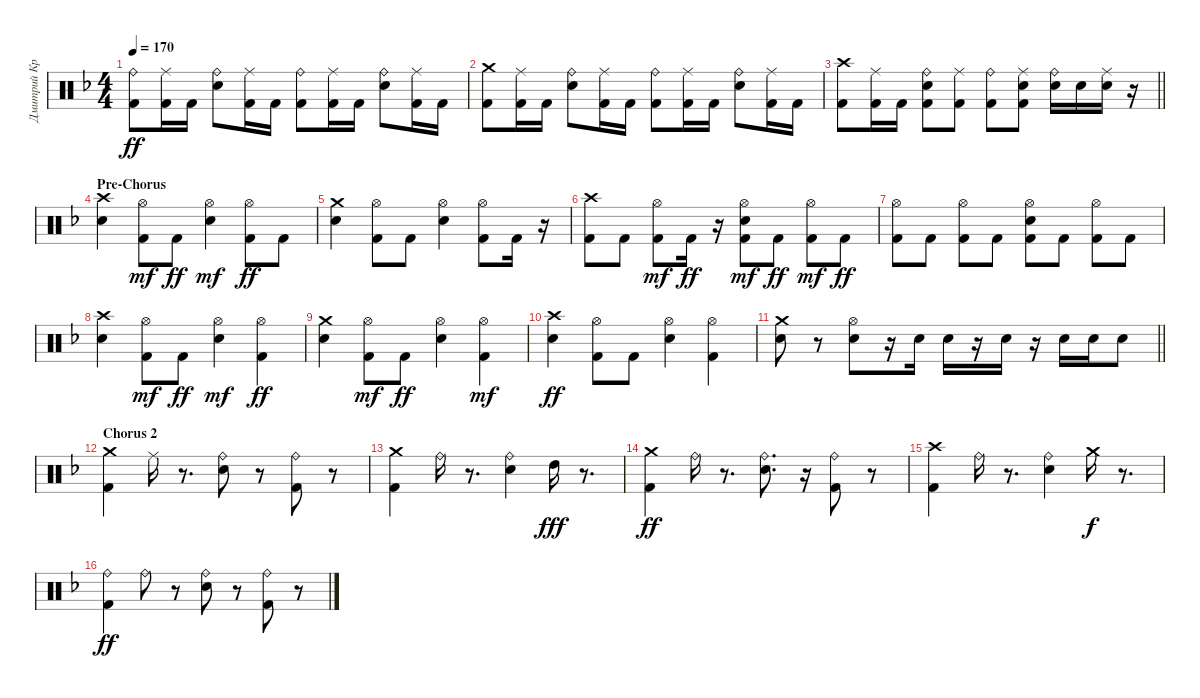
\track ("Дмитрий Кривенков" "Дмитрий Кр") {instrument percussion}
\staff {score}
\articulation defaults
\ts (4 4)
\tempo 170
\clef neutral
\ks f
("Ride (bell)" "Kick (hit) 2").8{dy ff} ("Ride (middle)" "Kick (hit) 2").16 "Kick (hit) 2".16 ("Ride (bell)" "Electric Snare (hit)").8 ("Ride (middle)" "Kick (hit) 2").16 "Kick (hit) 2".16 ("Kick (hit) 2" "Ride (bell)").8 ("Ride (middle)" "Kick (hit) 2").16 "Kick (hit) 2".16 ("Ride (bell)" "Electric Snare (hit)").8 ("Ride (middle)" "Kick (hit) 2").16 "Kick (hit) 2".16 |
("Kick (hit) 2" "Crash medium (hit)").8 ("Kick (hit) 2" "Ride (middle)").16 "Kick (hit) 2".16 ("Electric Snare (hit)" "Ride (bell)").8 ("Kick (hit) 2" "Ride (middle)").16 "Kick (hit) 2".16 ("Kick (hit) 2" "Ride (bell)").8 ("Ride (middle)" "Kick (hit) 2").16 "Kick (hit) 2".16 ("Ride (bell)" "Electric Snare (hit)").8 ("Ride (middle)" "Kick (hit) 2").16 "Kick (hit) 2".16 |
\barLineRight lightlight
("Crash high (hit)" "Kick (hit) 2").8 ("Ride (middle)" "Kick (hit) 2").16 "Kick (hit) 2".16 ("Kick (hit) 2" "Electric Snare (hit)" "Ride (bell)").8 ("Ride (middle)" "Kick (hit) 2").8 ("Ride (bell)" "Kick (hit) 2").8 ("Ride (middle)" "Electric Snare (hit)" "Kick (hit) 2").8 ("Ride (bell)" "Electric Snare (hit)").16 "Electric Snare (hit)".16 ("Ride (middle)" "Electric Snare (hit)").16 r.16 |
\section ("" "Pre-Chorus")
("Electric Snare (hit)" "Crash high (hit)").4 ("Kick (hit) 2" "Hi-Hat (open)").8{dy mf} "Kick (hit) 2".8{dy ff} ("Electric Snare (hit)" "Hi-Hat (open)").4{dy mf} ("Hi-Hat (open)" "Kick (hit) 2").8{dy ff} "Kick (hit) 2".8 |
("Electric Snare (hit)" "Crash medium (hit)").4 ("Hi-Hat (open)" "Kick (hit) 2").8 "Kick (hit) 2".8 ("Hi-Hat (open)" "Electric Snare (hit)").4 ("Hi-Hat (open)" "Kick (hit) 2").8 "Kick (hit) 2".16 r.16 |
("Kick (hit) 2" "Crash high (hit)").8 "Kick (hit) 2".8 ("Kick (hit) 2" "Hi-Hat (open)").8{dy mf} "Kick (hit) 2".16{dy ff} r.16 ("Kick (hit) 2" "Electric Snare (hit)" "Hi-Hat (open)").8{dy mf} "Kick (hit) 2".8{dy ff} ("Kick (hit) 2" "Hi-Hat (open)").8{dy mf} "Kick (hit) 2".8{dy ff} |
("Hi-Hat (open)" "Kick (hit) 2").8 "Kick (hit) 2".8 ("Hi-Hat (open)" "Kick (hit) 2").8 "Kick (hit) 2".8 ("Hi-Hat (open)" "Kick (hit) 2" "Electric Snare (hit)").8 "Kick (hit) 2".8 ("Hi-Hat (open)" "Kick (hit) 2").8 "Kick (hit) 2".8 |
("Electric Snare (hit)" "Crash high (hit)").4 ("Kick (hit) 2" "Hi-Hat (open)").8{dy mf} "Kick (hit) 2".8{dy ff} ("Electric Snare (hit)" "Hi-Hat (open)").4{dy mf} ("Hi-Hat (open)" "Kick (hit) 2").4{dy ff} |
("Electric Snare (hit)" "Crash medium (hit)").4 ("Kick (hit) 2" "Hi-Hat (open)").8{dy mf} "Kick (hit) 2".8{dy ff} ("Hi-Hat (open)" "Electric Snare (hit)").4 ("Kick (hit) 2" "Hi-Hat (open)").4{dy mf} |
("Electric Snare (hit)" "Crash high (hit)").4{dy ff} ("Hi-Hat (open)" "Kick (hit) 2").8 "Kick (hit) 2".8 ("Hi-Hat (open)" "Electric Snare (hit)").4 ("Hi-Hat (open)" "Kick (hit) 2").4 |
\barLineRight lightlight
("Electric Snare (hit)" "Crash medium (hit)").8 r.8 ("Hi-Hat (open)" "Electric Snare (hit)").8 r.16 "Electric Snare (hit)".16 "Electric Snare (hit)".16 r.16 "Electric Snare (hit)".16 r.16 "Electric Snare (hit)".16 "Electric Snare (hit)".16 "Electric Snare (hit)".8 |
\section ("" "Chorus 2")
("Kick (hit) 2" "Crash medium (hit)").4 "Ride (middle)".16 r.8{d} ("Ride (bell)" "Electric Snare (hit)").8 r.8 ("Ride (bell)" "Kick (hit) 2").8 r.8 |
("Crash medium (hit)" "Kick (hit) 2").4 "Ride (bell)".16 r.8{d} ("Electric Snare (hit)" "Ride (bell)").4 "High Tom (hit)".16{dy fff} r.8{d} |
("Crash medium (hit)" "Kick (hit) 2").4{dy ff} "Ride (bell)".16 r.8{d} ("Electric Snare (hit)" "Ride (bell)").8{d} r.16 ("Ride (bell)" "Kick (hit) 2").8 r.8 |
("Crash high (hit)" "Kick (hit) 2").4 "Ride (bell)".16 r.8{d} ("Ride (bell)" "Electric Snare (hit)").4 "Crash medium (hit)".16{dy f} r.8{d} |
("Kick (hit) 2" "Ride (bell)").4{dy ff} "Ride (bell)".8 r.8 ("Ride (bell)" "Electric Snare (hit)").8 r.8 ("Ride (bell)" "Kick (hit) 2").8 r.8
